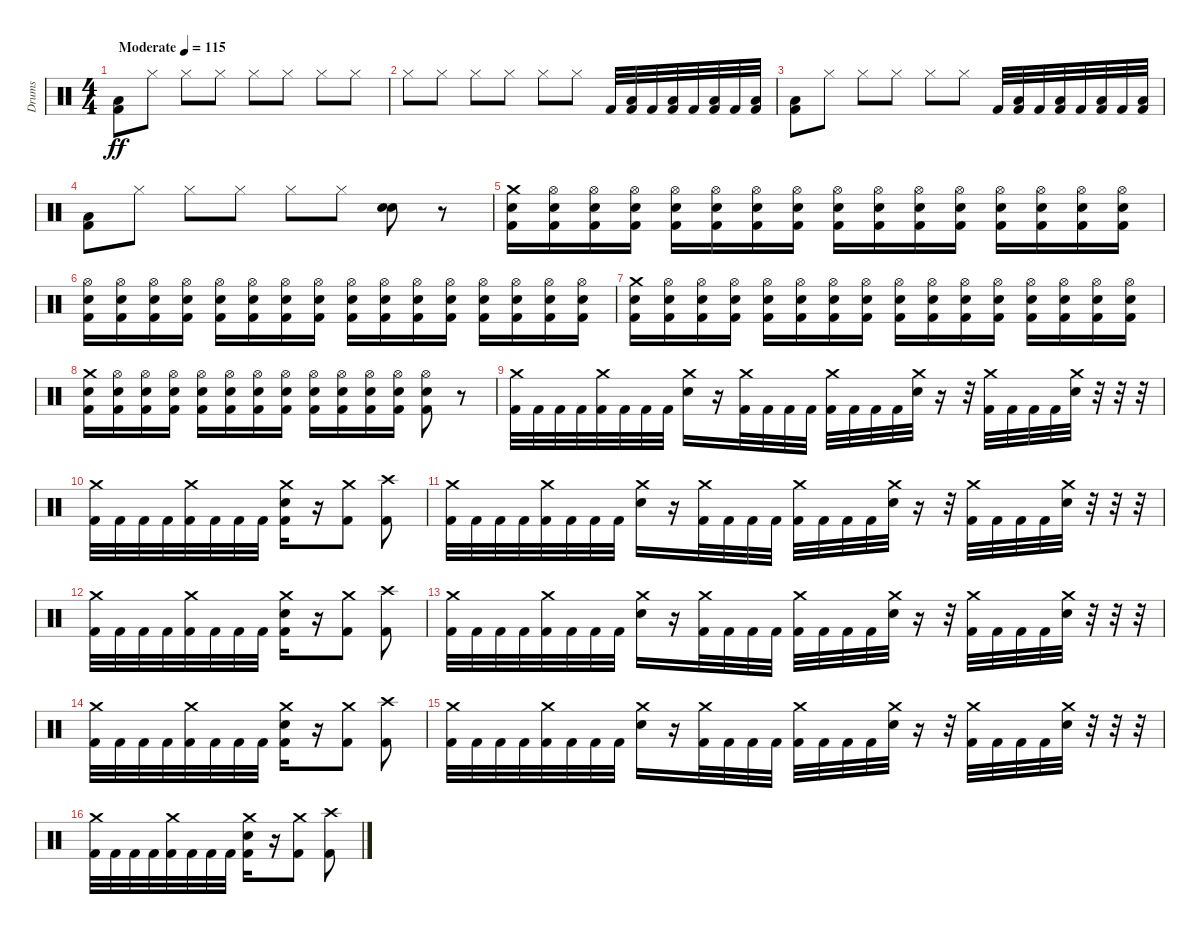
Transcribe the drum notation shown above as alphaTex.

\track ("Drums" "Drums") {instrument percussion}
\staff {score}
\articulation defaults
\ts (4 4)
\tempo (115 "Moderate")
\clef neutral
\ks c
("Low Floor Tom (hit)" "Kick (hit) 2").8{dy ff} "Hi-Hat (closed)".8 "Hi-Hat (closed)".8 "Hi-Hat (closed)".8 "Hi-Hat (closed)".8 "Hi-Hat (closed)".8 "Hi-Hat (closed)".8 "Hi-Hat (closed)".8 |
"Hi-Hat (closed)".8 "Hi-Hat (closed)".8 "Hi-Hat (closed)".8 "Hi-Hat (closed)".8 "Hi-Hat (closed)".8 "Hi-Hat (closed)".8 "Kick (hit) 2".32 ("Low Floor Tom (hit)" "Kick (hit) 2").32 "Kick (hit) 2".32 ("Low Floor Tom (hit)" "Kick (hit) 2").32 "Kick (hit) 2".32 ("Low Floor Tom (hit)" "Kick (hit) 2").32 "Kick (hit) 2".32 ("Low Floor Tom (hit)" "Kick (hit) 2").32 |
("Low Floor Tom (hit)" "Kick (hit) 2").8 "Hi-Hat (closed)".8 "Hi-Hat (closed)".8 "Hi-Hat (closed)".8 "Hi-Hat (closed)".8 "Hi-Hat (closed)".8 "Kick (hit) 2".32 ("Low Floor Tom (hit)" "Kick (hit) 2").32 "Kick (hit) 2".32 ("Low Floor Tom (hit)" "Kick (hit) 2").32 "Kick (hit) 2".32 ("Low Floor Tom (hit)" "Kick (hit) 2").32 "Kick (hit) 2".32 ("Low Floor Tom (hit)" "Kick (hit) 2").32 |
("Low Floor Tom (hit)" "Kick (hit) 2").8 "Hi-Hat (closed)".8 "Hi-Hat (closed)".8 "Hi-Hat (closed)".8 "Hi-Hat (closed)".8 "Hi-Hat (closed)".8 ("Snare (hit) 2" "Electric Snare (hit)").8 r.8 |
("Crash medium (hit)" "Electric Snare (hit)" "Kick (hit) 2").16 ("Hi-Hat (open)" "Electric Snare (hit)" "Kick (hit) 2").16 ("Hi-Hat (open)" "Electric Snare (hit)" "Kick (hit) 2").16 ("Hi-Hat (open)" "Electric Snare (hit)" "Kick (hit) 2").16 ("Hi-Hat (open)" "Electric Snare (hit)" "Kick (hit) 2").16 ("Hi-Hat (open)" "Electric Snare (hit)" "Kick (hit) 2").16 ("Hi-Hat (open)" "Electric Snare (hit)" "Kick (hit) 2").16 ("Hi-Hat (open)" "Electric Snare (hit)" "Kick (hit) 2").16 ("Hi-Hat (open)" "Electric Snare (hit)" "Kick (hit) 2").16 ("Hi-Hat (open)" "Electric Snare (hit)" "Kick (hit) 2").16 ("Hi-Hat (open)" "Electric Snare (hit)" "Kick (hit) 2").16 ("Hi-Hat (open)" "Electric Snare (hit)" "Kick (hit) 2").16 ("Hi-Hat (open)" "Electric Snare (hit)" "Kick (hit) 2").16 ("Hi-Hat (open)" "Electric Snare (hit)" "Kick (hit) 2").16 ("Hi-Hat (open)" "Electric Snare (hit)" "Kick (hit) 2").16 ("Hi-Hat (open)" "Electric Snare (hit)" "Kick (hit) 2").16 |
("Hi-Hat (open)" "Electric Snare (hit)" "Kick (hit) 2").16 ("Hi-Hat (open)" "Electric Snare (hit)" "Kick (hit) 2").16 ("Hi-Hat (open)" "Electric Snare (hit)" "Kick (hit) 2").16 ("Hi-Hat (open)" "Electric Snare (hit)" "Kick (hit) 2").16 ("Hi-Hat (open)" "Electric Snare (hit)" "Kick (hit) 2").16 ("Hi-Hat (open)" "Electric Snare (hit)" "Kick (hit) 2").16 ("Hi-Hat (open)" "Electric Snare (hit)" "Kick (hit) 2").16 ("Hi-Hat (open)" "Electric Snare (hit)" "Kick (hit) 2").16 ("Hi-Hat (open)" "Electric Snare (hit)" "Kick (hit) 2").16 ("Hi-Hat (open)" "Electric Snare (hit)" "Kick (hit) 2").16 ("Hi-Hat (open)" "Electric Snare (hit)" "Kick (hit) 2").16 ("Hi-Hat (open)" "Electric Snare (hit)" "Kick (hit) 2").16 ("Hi-Hat (open)" "Electric Snare (hit)" "Kick (hit) 2").16 ("Hi-Hat (open)" "Electric Snare (hit)" "Kick (hit) 2").16 ("Hi-Hat (open)" "Electric Snare (hit)" "Kick (hit) 2").16 ("Hi-Hat (open)" "Electric Snare (hit)" "Kick (hit) 2").16 |
("Crash medium (hit)" "Electric Snare (hit)" "Kick (hit) 2").16 ("Hi-Hat (open)" "Electric Snare (hit)" "Kick (hit) 2").16 ("Hi-Hat (open)" "Electric Snare (hit)" "Kick (hit) 2").16 ("Hi-Hat (open)" "Electric Snare (hit)" "Kick (hit) 2").16 ("Hi-Hat (open)" "Electric Snare (hit)" "Kick (hit) 2").16 ("Hi-Hat (open)" "Electric Snare (hit)" "Kick (hit) 2").16 ("Hi-Hat (open)" "Electric Snare (hit)" "Kick (hit) 2").16 ("Hi-Hat (open)" "Electric Snare (hit)" "Kick (hit) 2").16 ("Hi-Hat (open)" "Electric Snare (hit)" "Kick (hit) 2").16 ("Hi-Hat (open)" "Electric Snare (hit)" "Kick (hit) 2").16 ("Hi-Hat (open)" "Electric Snare (hit)" "Kick (hit) 2").16 ("Hi-Hat (open)" "Electric Snare (hit)" "Kick (hit) 2").16 ("Hi-Hat (open)" "Electric Snare (hit)" "Kick (hit) 2").16 ("Hi-Hat (open)" "Electric Snare (hit)" "Kick (hit) 2").16 ("Hi-Hat (open)" "Electric Snare (hit)" "Kick (hit) 2").16 ("Hi-Hat (open)" "Electric Snare (hit)" "Kick (hit) 2").16 |
("Crash medium (hit)" "Electric Snare (hit)" "Kick (hit) 2").16 ("Hi-Hat (open)" "Electric Snare (hit)" "Kick (hit) 2").16 ("Hi-Hat (open)" "Electric Snare (hit)" "Kick (hit) 2").16 ("Hi-Hat (open)" "Electric Snare (hit)" "Kick (hit) 2").16 ("Hi-Hat (open)" "Electric Snare (hit)" "Kick (hit) 2").16 ("Hi-Hat (open)" "Electric Snare (hit)" "Kick (hit) 2").16 ("Hi-Hat (open)" "Electric Snare (hit)" "Kick (hit) 2").16 ("Hi-Hat (open)" "Electric Snare (hit)" "Kick (hit) 2").16 ("Hi-Hat (open)" "Electric Snare (hit)" "Kick (hit) 2").16 ("Hi-Hat (open)" "Electric Snare (hit)" "Kick (hit) 2").16 ("Hi-Hat (open)" "Electric Snare (hit)" "Kick (hit) 2").16 ("Hi-Hat (open)" "Electric Snare (hit)" "Kick (hit) 2").16 ("Hi-Hat (open)" "Electric Snare (hit)" "Kick (hit) 2").8 r.8 |
("Crash medium (hit)" "Kick (hit) 2").32 "Kick (hit) 2".32 "Kick (hit) 2".32 "Kick (hit) 2".32 ("Crash medium (hit)" "Kick (hit) 2").32 "Kick (hit) 2".32 "Kick (hit) 2".32 "Kick (hit) 2".32 ("Crash medium (hit)" "Electric Snare (hit)").16 r.16 ("Crash medium (hit)" "Kick (hit) 2").32 "Kick (hit) 2".32 "Kick (hit) 2".32 "Kick (hit) 2".32 ("Crash medium (hit)" "Kick (hit) 2").32 "Kick (hit) 2".32 "Kick (hit) 2".32 "Kick (hit) 2".32 ("Crash medium (hit)" "Electric Snare (hit)").32 r.16 r.32 ("Crash medium (hit)" "Kick (hit) 2").32 "Kick (hit) 2".32 "Kick (hit) 2".32 "Kick (hit) 2".32 ("Crash medium (hit)" "Electric Snare (hit)").32 r.32 r.32 r.32 |
("Crash medium (hit)" "Kick (hit) 2").32 "Kick (hit) 2".32 "Kick (hit) 2".32 "Kick (hit) 2".32 ("Crash medium (hit)" "Kick (hit) 2").32 "Kick (hit) 2".32 "Kick (hit) 2".32 "Kick (hit) 2".32 ("Crash medium (hit)" "Electric Snare (hit)" "Kick (hit) 2").16 r.16 ("Crash medium (hit)" "Kick (hit) 2").8 ("Crash high (hit)" "Kick (hit) 2").8 |
("Crash medium (hit)" "Kick (hit) 2").32 "Kick (hit) 2".32 "Kick (hit) 2".32 "Kick (hit) 2".32 ("Crash medium (hit)" "Kick (hit) 2").32 "Kick (hit) 2".32 "Kick (hit) 2".32 "Kick (hit) 2".32 ("Crash medium (hit)" "Electric Snare (hit)").16 r.16 ("Crash medium (hit)" "Kick (hit) 2").32 "Kick (hit) 2".32 "Kick (hit) 2".32 "Kick (hit) 2".32 ("Crash medium (hit)" "Kick (hit) 2").32 "Kick (hit) 2".32 "Kick (hit) 2".32 "Kick (hit) 2".32 ("Crash medium (hit)" "Electric Snare (hit)").32 r.16 r.32 ("Crash medium (hit)" "Kick (hit) 2").32 "Kick (hit) 2".32 "Kick (hit) 2".32 "Kick (hit) 2".32 ("Crash medium (hit)" "Electric Snare (hit)").32 r.32 r.32 r.32 |
("Crash medium (hit)" "Kick (hit) 2").32 "Kick (hit) 2".32 "Kick (hit) 2".32 "Kick (hit) 2".32 ("Crash medium (hit)" "Kick (hit) 2").32 "Kick (hit) 2".32 "Kick (hit) 2".32 "Kick (hit) 2".32 ("Crash medium (hit)" "Electric Snare (hit)" "Kick (hit) 2").16 r.16 ("Crash medium (hit)" "Kick (hit) 2").8 ("Crash high (hit)" "Kick (hit) 2").8 |
("Crash medium (hit)" "Kick (hit) 2").32 "Kick (hit) 2".32 "Kick (hit) 2".32 "Kick (hit) 2".32 ("Crash medium (hit)" "Kick (hit) 2").32 "Kick (hit) 2".32 "Kick (hit) 2".32 "Kick (hit) 2".32 ("Crash medium (hit)" "Electric Snare (hit)").16 r.16 ("Crash medium (hit)" "Kick (hit) 2").32 "Kick (hit) 2".32 "Kick (hit) 2".32 "Kick (hit) 2".32 ("Crash medium (hit)" "Kick (hit) 2").32 "Kick (hit) 2".32 "Kick (hit) 2".32 "Kick (hit) 2".32 ("Crash medium (hit)" "Electric Snare (hit)").32 r.16 r.32 ("Crash medium (hit)" "Kick (hit) 2").32 "Kick (hit) 2".32 "Kick (hit) 2".32 "Kick (hit) 2".32 ("Crash medium (hit)" "Electric Snare (hit)").32 r.32 r.32 r.32 |
("Crash medium (hit)" "Kick (hit) 2").32 "Kick (hit) 2".32 "Kick (hit) 2".32 "Kick (hit) 2".32 ("Crash medium (hit)" "Kick (hit) 2").32 "Kick (hit) 2".32 "Kick (hit) 2".32 "Kick (hit) 2".32 ("Crash medium (hit)" "Electric Snare (hit)" "Kick (hit) 2").16 r.16 ("Crash medium (hit)" "Kick (hit) 2").8 ("Crash high (hit)" "Kick (hit) 2").8 |
("Crash medium (hit)" "Kick (hit) 2").32 "Kick (hit) 2".32 "Kick (hit) 2".32 "Kick (hit) 2".32 ("Crash medium (hit)" "Kick (hit) 2").32 "Kick (hit) 2".32 "Kick (hit) 2".32 "Kick (hit) 2".32 ("Crash medium (hit)" "Electric Snare (hit)").16 r.16 ("Crash medium (hit)" "Kick (hit) 2").32 "Kick (hit) 2".32 "Kick (hit) 2".32 "Kick (hit) 2".32 ("Crash medium (hit)" "Kick (hit) 2").32 "Kick (hit) 2".32 "Kick (hit) 2".32 "Kick (hit) 2".32 ("Crash medium (hit)" "Electric Snare (hit)").32 r.16 r.32 ("Crash medium (hit)" "Kick (hit) 2").32 "Kick (hit) 2".32 "Kick (hit) 2".32 "Kick (hit) 2".32 ("Crash medium (hit)" "Electric Snare (hit)").32 r.32 r.32 r.32 |
("Crash medium (hit)" "Kick (hit) 2").32 "Kick (hit) 2".32 "Kick (hit) 2".32 "Kick (hit) 2".32 ("Crash medium (hit)" "Kick (hit) 2").32 "Kick (hit) 2".32 "Kick (hit) 2".32 "Kick (hit) 2".32 ("Crash medium (hit)" "Electric Snare (hit)" "Kick (hit) 2").16 r.16 ("Crash medium (hit)" "Kick (hit) 2").8 ("Crash high (hit)" "Kick (hit) 2").8
